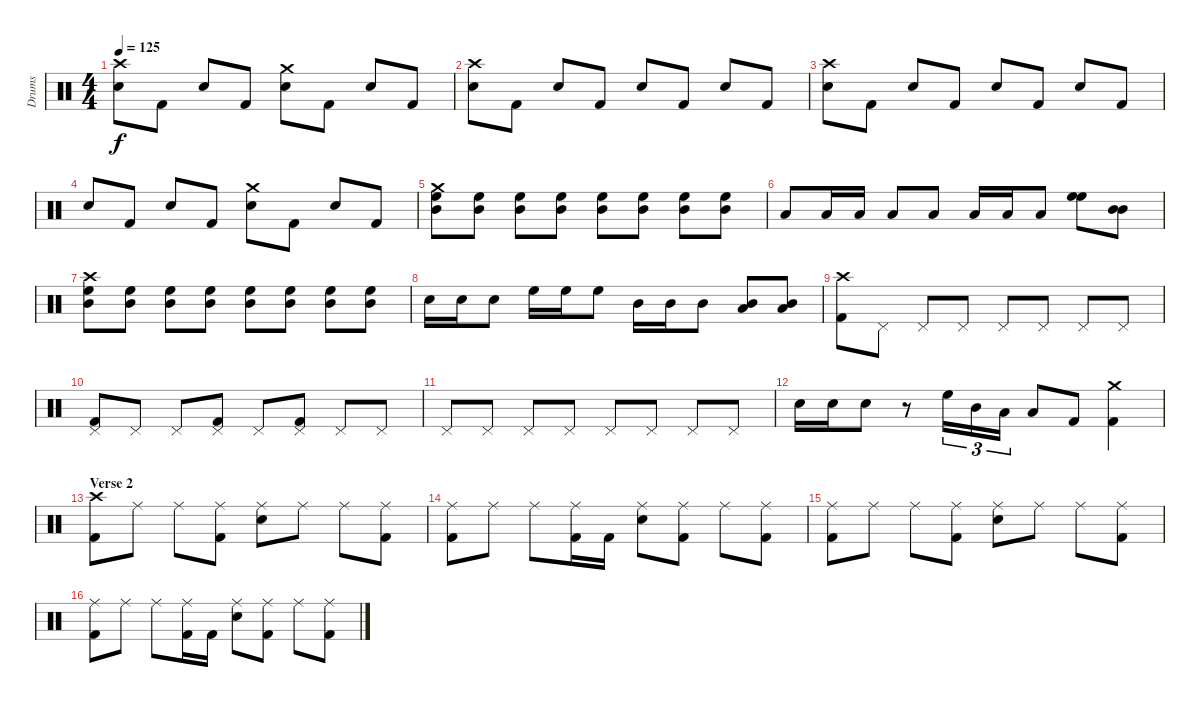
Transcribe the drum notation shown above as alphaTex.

\track ("Drums" "Drums") {instrument percussion}
\staff {score}
\articulation defaults
\ts (4 4)
\tempo 125
\clef neutral
\ks c
("Crash high (hit)" "Snare (hit) 2").8{dy f} "Kick (hit) 2".8 "Snare (hit) 2".8 "Kick (hit) 2".8 ("Crash medium (hit)" "Snare (hit) 2").8 "Kick (hit) 2".8 "Snare (hit) 2".8 "Kick (hit) 2".8 |
("Crash high (hit)" "Snare (hit) 2").8 "Kick (hit) 2".8 "Snare (hit) 2".8 "Kick (hit) 2".8 "Snare (hit) 2".8 "Kick (hit) 2".8 "Snare (hit) 2".8 "Kick (hit) 2".8 |
("Crash high (hit)" "Snare (hit) 2").8 "Kick (hit) 2".8 "Snare (hit) 2".8 "Kick (hit) 2".8 "Snare (hit) 2".8 "Kick (hit) 2".8 "Snare (hit) 2".8 "Kick (hit) 2".8 |
"Snare (hit) 2".8 "Kick (hit) 2".8 "Snare (hit) 2".8 "Kick (hit) 2".8 ("Crash medium (hit)" "Snare (hit) 2").8 "Kick (hit) 2".8 "Snare (hit) 2".8 "Kick (hit) 2".8 |
("Crash medium (hit)" "High Floor Tom (hit)" "Mid Tom (hit)").8 ("High Floor Tom (hit)" "Mid Tom (hit)").8 ("High Floor Tom (hit)" "Mid Tom (hit)").8 ("High Floor Tom (hit)" "Mid Tom (hit)").8 ("High Floor Tom (hit)" "Mid Tom (hit)").8 ("High Floor Tom (hit)" "Mid Tom (hit)").8 ("High Floor Tom (hit)" "Mid Tom (hit)").8 ("High Floor Tom (hit)" "Mid Tom (hit)").8 |
"Low Tom (hit)".8 "Low Floor Tom (hit)".16 "Low Floor Tom (hit)".16 "Low Floor Tom (hit)".8 "Low Tom (hit)".8 "Low Floor Tom (hit)".16 "Low Floor Tom (hit)".16 "Low Floor Tom (hit)".8 ("High Floor Tom (hit)" "High Floor Tom (hit)").8 ("Mid Tom (hit)" "Mid Tom (hit)").8 |
("Crash high (hit)" "High Floor Tom (hit)" "Mid Tom (hit)").8 ("High Floor Tom (hit)" "Mid Tom (hit)").8 ("High Floor Tom (hit)" "Mid Tom (hit)").8 ("High Floor Tom (hit)" "Mid Tom (hit)").8 ("High Floor Tom (hit)" "Mid Tom (hit)").8 ("High Floor Tom (hit)" "Mid Tom (hit)").8 ("High Floor Tom (hit)" "Mid Tom (hit)").8 ("High Floor Tom (hit)" "Mid Tom (hit)").8 |
"Snare (hit) 2".16 "Snare (hit) 2".16 "Snare (hit) 2".8 "High Floor Tom (hit)".16 "High Floor Tom (hit)".16 "High Floor Tom (hit)".8 "Mid Tom (hit)".16 "Mid Tom (hit)".16 "Mid Tom (hit)".8 ("Low Tom (hit)" "Mid Tom (hit)").8 ("Low Tom (hit)" "Mid Tom (hit)").8 |
("Crash high (hit)" "Kick (hit) 2").8 "Pedal Hi-Hat (hit)".8 "Pedal Hi-Hat (hit)".8 "Pedal Hi-Hat (hit)".8 "Pedal Hi-Hat (hit)".8 "Pedal Hi-Hat (hit)".8 "Pedal Hi-Hat (hit)".8 "Pedal Hi-Hat (hit)".8 |
("Pedal Hi-Hat (hit)" "Kick (hit) 2").8 "Pedal Hi-Hat (hit)".8 "Pedal Hi-Hat (hit)".8 ("Pedal Hi-Hat (hit)" "Kick (hit) 2").8 "Pedal Hi-Hat (hit)".8 ("Pedal Hi-Hat (hit)" "Kick (hit) 2").8 "Pedal Hi-Hat (hit)".8 "Pedal Hi-Hat (hit)".8 |
"Pedal Hi-Hat (hit)".8 "Pedal Hi-Hat (hit)".8 "Pedal Hi-Hat (hit)".8 "Pedal Hi-Hat (hit)".8 "Pedal Hi-Hat (hit)".8 "Pedal Hi-Hat (hit)".8 "Pedal Hi-Hat (hit)".8 "Pedal Hi-Hat (hit)".8 |
"Snare (hit) 2".16 "Snare (hit) 2".16 "Snare (hit) 2".8 r.8 "High Floor Tom (hit)".16{tu (3 2)} "Mid Tom (hit)".16{tu (3 2)} "Low Tom (hit)".16{tu (3 2)} "Low Floor Tom (hit)".8 "Kick (hit) 2".8 ("Crash medium (hit)" "Kick (hit) 2").4 |
\section ("" "Verse 2")
("Crash high (hit)" "Kick (hit) 2").8 "Ride (middle)".8 "Ride (middle)".8 ("Ride (middle)" "Kick (hit) 2").8 ("Ride (middle)" "Snare (hit) 2").8 "Ride (middle)".8 "Ride (middle)".8 ("Ride (middle)" "Kick (hit) 2").8 |
("Ride (middle)" "Kick (hit) 2").8 "Ride (middle)".8 "Ride (middle)".8 ("Ride (middle)" "Kick (hit) 2").16 "Kick (hit) 2".16 ("Ride (middle)" "Snare (hit) 2").8 ("Ride (middle)" "Kick (hit) 2").8 "Ride (middle)".8 ("Ride (middle)" "Kick (hit) 2").8 |
("Ride (middle)" "Kick (hit) 2").8 "Ride (middle)".8 "Ride (middle)".8 ("Ride (middle)" "Kick (hit) 2").8 ("Ride (middle)" "Snare (hit) 2").8 "Ride (middle)".8 "Ride (middle)".8 ("Ride (middle)" "Kick (hit) 2").8 |
("Ride (middle)" "Kick (hit) 2").8 "Ride (middle)".8 "Ride (middle)".8 ("Ride (middle)" "Kick (hit) 2").16 "Kick (hit) 2".16 ("Ride (middle)" "Snare (hit) 2").8 ("Ride (middle)" "Kick (hit) 2").8 "Ride (middle)".8 ("Ride (middle)" "Kick (hit) 2").8
